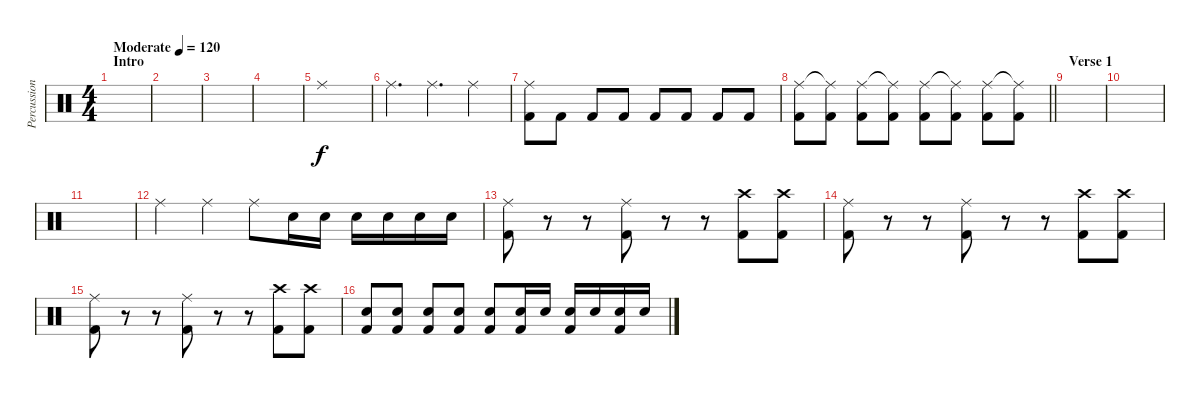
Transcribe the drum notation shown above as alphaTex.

\track ("Percussion" "Percussion") {instrument percussion}
\staff {score}
\articulation defaults
\ts (4 4)
\section ("" "Intro")
\tempo (120 "Moderate")
\clef neutral
\ks c
|
|
|
|
"Ride (middle)".1 |
"Ride (middle)".4{d} "Ride (middle)".4{d} "Ride (middle)".4 |
("Ride (middle)" "Kick (hit) 2").8 "Kick (hit) 2".8 "Kick (hit) 2".8 "Kick (hit) 2".8 "Kick (hit) 2".8 "Kick (hit) 2".8 "Kick (hit) 2".8 "Kick (hit) 2".8 |
\barLineRight lightlight
("Ride (middle)" "Kick (hit) 2").8 ("Ride (middle)"{t} "Kick (hit) 2").8 ("Ride (middle)" "Kick (hit) 2").8 ("Ride (middle)"{t} "Kick (hit) 2").8 ("Ride (middle)" "Kick (hit) 2").8 ("Ride (middle)"{t} "Kick (hit) 2").8 ("Ride (middle)" "Kick (hit) 2").8 ("Ride (middle)"{t} "Kick (hit) 2").8 |
\section ("" "Verse 1")
|
|
|
"Ride (middle)".4 "Ride (middle)".4 "Ride (middle)".8 "Electric Snare (hit)".16 "Electric Snare (hit)".16 "Electric Snare (hit)".16 "Electric Snare (hit)".16 "Electric Snare (hit)".16 "Electric Snare (hit)".16 |
("Ride (middle)" "Kick (hit) 2").8 r.8 r.8 ("Ride (middle)" "Kick (hit) 2").8 r.8 r.8 ("Crash high (hit)" "Kick (hit) 2").8 ("Crash high (hit)" "Kick (hit) 2").8 |
("Ride (middle)" "Kick (hit) 2").8 r.8 r.8 ("Ride (middle)" "Kick (hit) 2").8 r.8 r.8 ("Crash high (hit)" "Kick (hit) 2").8 ("Crash high (hit)" "Kick (hit) 2").8 |
("Ride (middle)" "Kick (hit) 2").8 r.8 r.8 ("Ride (middle)" "Kick (hit) 2").8 r.8 r.8 ("Crash high (hit)" "Kick (hit) 2").8 ("Crash high (hit)" "Kick (hit) 2").8 |
("Electric Snare (hit)" "Kick (hit) 2").8 ("Electric Snare (hit)" "Kick (hit) 2").8 ("Electric Snare (hit)" "Kick (hit) 2").8 ("Electric Snare (hit)" "Kick (hit) 2").8 ("Electric Snare (hit)" "Kick (hit) 2").8 ("Electric Snare (hit)" "Kick (hit) 2").16 "Electric Snare (hit)".16 ("Electric Snare (hit)" "Kick (hit) 2").16 "Electric Snare (hit)".16 ("Electric Snare (hit)" "Kick (hit) 2").16 "Electric Snare (hit)".16
